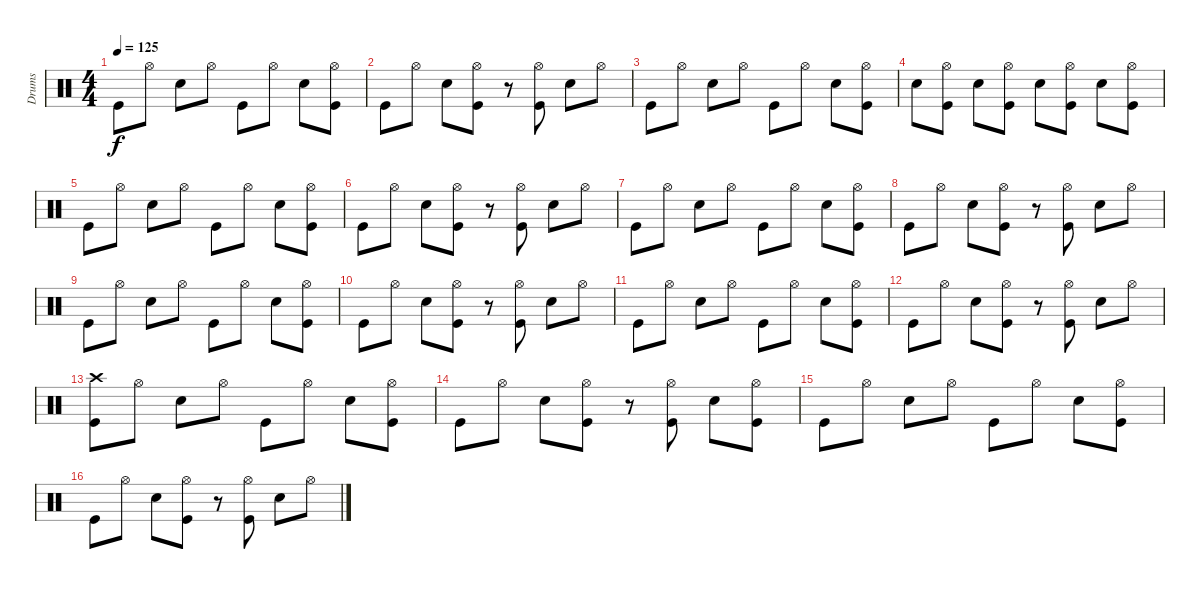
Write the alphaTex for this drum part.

\track ("Drums" "Drums") {instrument percussion}
\staff {score}
\articulation defaults
\ts (4 4)
\tempo 125
\clef neutral
\ks c "Kick (hit)".8{dy f} "Hi-Hat (open)".8 "Electric Snare (hit)".8 "Hi-Hat (open)".8 "Kick (hit)".8 "Hi-Hat (open)".8 "Electric Snare (hit)".8
("Hi-Hat (open)" "Kick (hit)").8 |
"Kick (hit)".8 "Hi-Hat (open)".8 "Electric Snare (hit)".8 ("Hi-Hat (open)" "Kick (hit)").8 r.8 ("Hi-Hat (open)" "Kick (hit)").8 "Electric Snare (hit)".8 "Hi-Hat (open)".8 |
"Kick (hit)".8 "Hi-Hat (open)".8 "Electric Snare (hit)".8 "Hi-Hat (open)".8 "Kick (hit)".8 "Hi-Hat (open)".8 "Electric Snare (hit)".8 ("Hi-Hat (open)" "Kick (hit)").8 |
"Electric Snare (hit)".8 ("Hi-Hat (open)" "Kick (hit)").8 "Electric Snare (hit)".8 ("Hi-Hat (open)" "Kick (hit)").8 "Electric Snare (hit)".8 ("Hi-Hat (open)" "Kick (hit)").8 "Electric Snare (hit)".8 ("Hi-Hat (open)" "Kick (hit)").8 |
"Kick (hit)".8 "Hi-Hat (open)".8 "Electric Snare (hit)".8 "Hi-Hat (open)".8 "Kick (hit)".8 "Hi-Hat (open)".8 "Electric Snare (hit)".8 ("Hi-Hat (open)" "Kick (hit)").8 |
"Kick (hit)".8 "Hi-Hat (open)".8 "Electric Snare (hit)".8 ("Hi-Hat (open)" "Kick (hit)").8 r.8 ("Hi-Hat (open)" "Kick (hit)").8 "Electric Snare (hit)".8 "Hi-Hat (open)".8 |
"Kick (hit)".8 "Hi-Hat (open)".8 "Electric Snare (hit)".8 "Hi-Hat (open)".8 "Kick (hit)".8 "Hi-Hat (open)".8 "Electric Snare (hit)".8 ("Hi-Hat (open)" "Kick (hit)").8 |
"Kick (hit)".8 "Hi-Hat (open)".8 "Electric Snare (hit)".8 ("Hi-Hat (open)" "Kick (hit)").8 r.8 ("Hi-Hat (open)" "Kick (hit)").8 "Electric Snare (hit)".8 "Hi-Hat (open)".8 |
"Kick (hit)".8 "Hi-Hat (open)".8 "Electric Snare (hit)".8 "Hi-Hat (open)".8 "Kick (hit)".8 "Hi-Hat (open)".8 "Electric Snare (hit)".8 ("Hi-Hat (open)" "Kick (hit)").8 |
"Kick (hit)".8 "Hi-Hat (open)".8 "Electric Snare (hit)".8 ("Hi-Hat (open)" "Kick (hit)").8 r.8 ("Hi-Hat (open)" "Kick (hit)").8 "Electric Snare (hit)".8 "Hi-Hat (open)".8 |
"Kick (hit)".8 "Hi-Hat (open)".8 "Electric Snare (hit)".8 "Hi-Hat (open)".8 "Kick (hit)".8 "Hi-Hat (open)".8 "Electric Snare (hit)".8 ("Hi-Hat (open)" "Kick (hit)").8 |
"Kick (hit)".8 "Hi-Hat (open)".8 "Electric Snare (hit)".8 ("Hi-Hat (open)" "Kick (hit)").8 r.8 ("Hi-Hat (open)" "Kick (hit)").8 "Electric Snare (hit)".8 "Hi-Hat (open)".8 |
("Crash high (hit)" "Kick (hit)").8 "Hi-Hat (open)".8 "Electric Snare (hit)".8 "Hi-Hat (open)".8 "Kick (hit)".8 "Hi-Hat (open)".8 "Electric Snare (hit)".8 ("Hi-Hat (open)" "Kick (hit)").8 |
"Kick (hit)".8 "Hi-Hat (open)".8 "Electric Snare (hit)".8 ("Hi-Hat (open)" "Kick (hit)").8 r.8 ("Hi-Hat (open)" "Kick (hit)").8 "Electric Snare (hit)".8 ("Hi-Hat (open)" "Kick (hit)").8 |
"Kick (hit)".8 "Hi-Hat (open)".8 "Electric Snare (hit)".8 "Hi-Hat (open)".8 "Kick (hit)".8 "Hi-Hat (open)".8 "Electric Snare (hit)".8 ("Hi-Hat (open)" "Kick (hit)").8 |
"Kick (hit)".8 "Hi-Hat (open)".8 "Electric Snare (hit)".8 ("Hi-Hat (open)" "Kick (hit)").8 r.8 ("Hi-Hat (open)" "Kick (hit)").8 "Electric Snare (hit)".8 "Hi-Hat (open)".8
